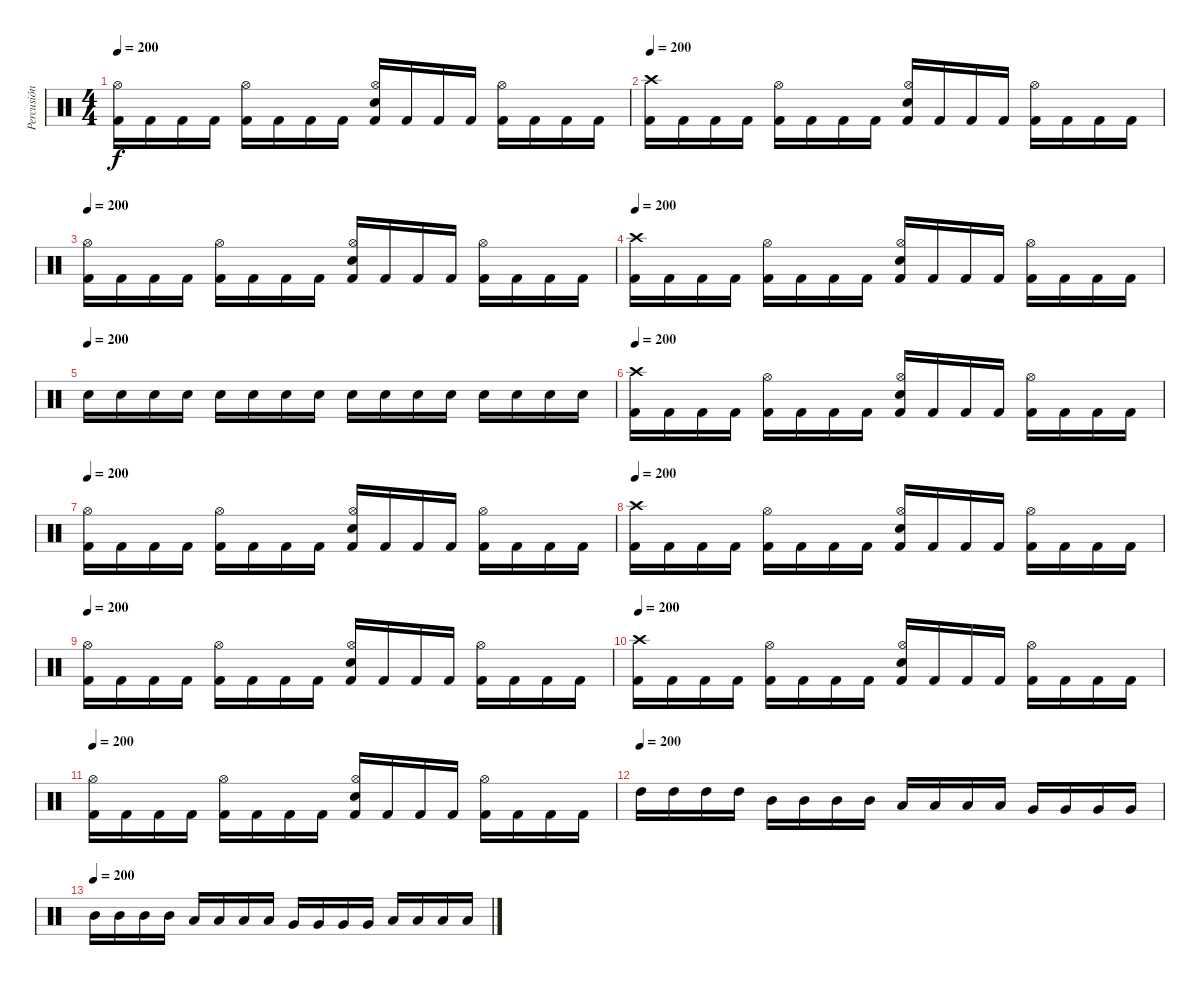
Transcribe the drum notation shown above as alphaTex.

\track ("Percusión" "Percusión") {instrument percussion}
\staff {score}
\articulation defaults
\ts (4 4)
\tempo 200
\clef neutral
\ks c
("Kick (hit) 2" "Hi-Hat (open)").16{dy f} "Kick (hit) 2".16 "Kick (hit) 2".16 "Kick (hit) 2".16 ("Kick (hit) 2" "Hi-Hat (open)").16 "Kick (hit) 2".16 "Kick (hit) 2".16 "Kick (hit) 2".16 ("Kick (hit) 2" "Hi-Hat (open)" "Snare (hit) 2").16 "Kick (hit) 2".16 "Kick (hit) 2".16 "Kick (hit) 2".16 ("Kick (hit) 2" "Hi-Hat (open)").16 "Kick (hit) 2".16 "Kick (hit) 2".16 "Kick (hit) 2".16 |
\tempo 200
("Kick (hit) 2" "Crash high (hit)").16 "Kick (hit) 2".16 "Kick (hit) 2".16 "Kick (hit) 2".16 ("Kick (hit) 2" "Hi-Hat (open)").16 "Kick (hit) 2".16 "Kick (hit) 2".16 "Kick (hit) 2".16 ("Kick (hit) 2" "Hi-Hat (open)" "Snare (hit) 2").16 "Kick (hit) 2".16 "Kick (hit) 2".16 "Kick (hit) 2".16 ("Kick (hit) 2" "Hi-Hat (open)").16 "Kick (hit) 2".16 "Kick (hit) 2".16 "Kick (hit) 2".16 |
\tempo 200
("Kick (hit) 2" "Hi-Hat (open)").16 "Kick (hit) 2".16 "Kick (hit) 2".16 "Kick (hit) 2".16 ("Kick (hit) 2" "Hi-Hat (open)").16 "Kick (hit) 2".16 "Kick (hit) 2".16 "Kick (hit) 2".16 ("Kick (hit) 2" "Hi-Hat (open)" "Snare (hit) 2").16 "Kick (hit) 2".16 "Kick (hit) 2".16 "Kick (hit) 2".16 ("Kick (hit) 2" "Hi-Hat (open)").16 "Kick (hit) 2".16 "Kick (hit) 2".16 "Kick (hit) 2".16 |
\tempo 200
("Kick (hit) 2" "Crash high (hit)").16 "Kick (hit) 2".16 "Kick (hit) 2".16 "Kick (hit) 2".16 ("Kick (hit) 2" "Hi-Hat (open)").16 "Kick (hit) 2".16 "Kick (hit) 2".16 "Kick (hit) 2".16 ("Kick (hit) 2" "Hi-Hat (open)" "Snare (hit) 2").16 "Kick (hit) 2".16 "Kick (hit) 2".16 "Kick (hit) 2".16 ("Kick (hit) 2" "Hi-Hat (open)").16 "Kick (hit) 2".16 "Kick (hit) 2".16 "Kick (hit) 2".16 |
\tempo (200)
"Snare (hit) 2".16 "Snare (hit) 2".16 "Snare (hit) 2".16 "Snare (hit) 2".16 "Snare (hit) 2".16 "Snare (hit) 2".16 "Snare (hit) 2".16 "Snare (hit) 2".16 "Snare (hit) 2".16 "Snare (hit) 2".16 "Snare (hit) 2".16 "Snare (hit) 2".16 "Snare (hit) 2".16 "Snare (hit) 2".16 "Snare (hit) 2".16 "Snare (hit) 2".16 |
\tempo 200
("Kick (hit) 2" "Crash high (hit)").16 "Kick (hit) 2".16 "Kick (hit) 2".16 "Kick (hit) 2".16 ("Kick (hit) 2" "Hi-Hat (open)").16 "Kick (hit) 2".16 "Kick (hit) 2".16 "Kick (hit) 2".16 ("Kick (hit) 2" "Hi-Hat (open)" "Snare (hit) 2").16 "Kick (hit) 2".16 "Kick (hit) 2".16 "Kick (hit) 2".16 ("Kick (hit) 2" "Hi-Hat (open)").16 "Kick (hit) 2".16 "Kick (hit) 2".16 "Kick (hit) 2".16 |
\tempo 200
("Kick (hit) 2" "Hi-Hat (open)").16 "Kick (hit) 2".16 "Kick (hit) 2".16 "Kick (hit) 2".16 ("Kick (hit) 2" "Hi-Hat (open)").16 "Kick (hit) 2".16 "Kick (hit) 2".16 "Kick (hit) 2".16 ("Kick (hit) 2" "Hi-Hat (open)" "Snare (hit) 2").16 "Kick (hit) 2".16 "Kick (hit) 2".16 "Kick (hit) 2".16 ("Kick (hit) 2" "Hi-Hat (open)").16 "Kick (hit) 2".16 "Kick (hit) 2".16 "Kick (hit) 2".16 |
\tempo 200
("Kick (hit) 2" "Crash high (hit)").16 "Kick (hit) 2".16 "Kick (hit) 2".16 "Kick (hit) 2".16 ("Kick (hit) 2" "Hi-Hat (open)").16 "Kick (hit) 2".16 "Kick (hit) 2".16 "Kick (hit) 2".16 ("Kick (hit) 2" "Hi-Hat (open)" "Snare (hit) 2").16 "Kick (hit) 2".16 "Kick (hit) 2".16 "Kick (hit) 2".16 ("Kick (hit) 2" "Hi-Hat (open)").16 "Kick (hit) 2".16 "Kick (hit) 2".16 "Kick (hit) 2".16 |
\tempo 200
("Kick (hit) 2" "Hi-Hat (open)").16 "Kick (hit) 2".16 "Kick (hit) 2".16 "Kick (hit) 2".16 ("Kick (hit) 2" "Hi-Hat (open)").16 "Kick (hit) 2".16 "Kick (hit) 2".16 "Kick (hit) 2".16 ("Kick (hit) 2" "Hi-Hat (open)" "Snare (hit) 2").16 "Kick (hit) 2".16 "Kick (hit) 2".16 "Kick (hit) 2".16 ("Kick (hit) 2" "Hi-Hat (open)").16 "Kick (hit) 2".16 "Kick (hit) 2".16 "Kick (hit) 2".16 |
\tempo 200
("Kick (hit) 2" "Crash high (hit)").16 "Kick (hit) 2".16 "Kick (hit) 2".16 "Kick (hit) 2".16 ("Kick (hit) 2" "Hi-Hat (open)").16 "Kick (hit) 2".16 "Kick (hit) 2".16 "Kick (hit) 2".16 ("Kick (hit) 2" "Hi-Hat (open)" "Snare (hit) 2").16 "Kick (hit) 2".16 "Kick (hit) 2".16 "Kick (hit) 2".16 ("Kick (hit) 2" "Hi-Hat (open)").16 "Kick (hit) 2".16 "Kick (hit) 2".16 "Kick (hit) 2".16 |
\tempo 200
("Kick (hit) 2" "Hi-Hat (open)").16 "Kick (hit) 2".16 "Kick (hit) 2".16 "Kick (hit) 2".16 ("Kick (hit) 2" "Hi-Hat (open)").16 "Kick (hit) 2".16 "Kick (hit) 2".16 "Kick (hit) 2".16 ("Kick (hit) 2" "Hi-Hat (open)" "Snare (hit) 2").16 "Kick (hit) 2".16 "Kick (hit) 2".16 "Kick (hit) 2".16 ("Kick (hit) 2" "Hi-Hat (open)").16 "Kick (hit) 2".16 "Kick (hit) 2".16 "Kick (hit) 2".16 |
\tempo (200)
"High Tom (hit)".16 "High Tom (hit)".16 "High Tom (hit)".16 "High Tom (hit)".16 "Mid Tom (hit)".16 "Mid Tom (hit)".16 "Mid Tom (hit)".16 "Mid Tom (hit)".16 "Low Tom (hit)".16 "Low Tom (hit)".16 "Low Tom (hit)".16 "Low Tom (hit)".16 "Very Low Tom (hit)".16 "Very Low Tom (hit)".16 "Very Low Tom (hit)".16 "Very Low Tom (hit)".16 |
\tempo (200)
"Mid Tom (hit)".16 "Mid Tom (hit)".16 "Mid Tom (hit)".16 "Mid Tom (hit)".16 "Low Tom (hit)".16 "Low Tom (hit)".16 "Low Tom (hit)".16 "Low Tom (hit)".16 "Very Low Tom (hit)".16 "Very Low Tom (hit)".16 "Very Low Tom (hit)".16 "Very Low Tom (hit)".16 "Low Floor Tom (hit)".16 "Low Floor Tom (hit)".16 "Low Floor Tom (hit)".16 "Low Floor Tom (hit)".16
